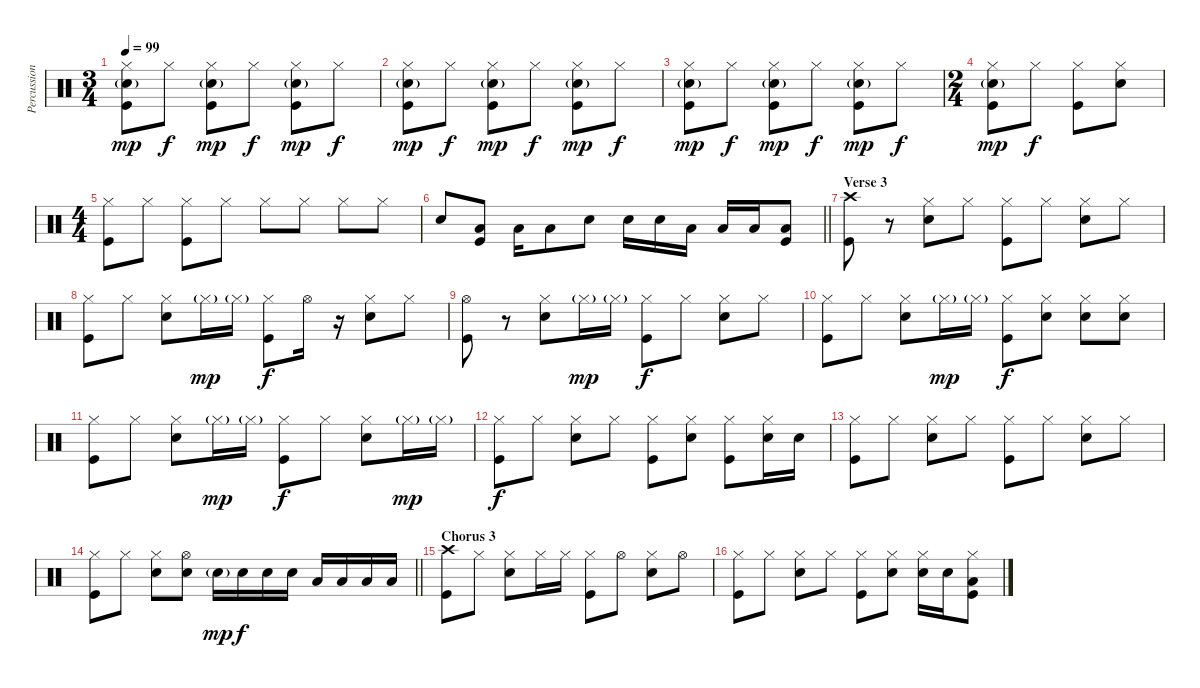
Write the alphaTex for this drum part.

\track ("Percussion" "Percussion") {instrument percussion}
\staff {score}
\articulation defaults
\ts (3 4)
\tempo 99
\clef neutral
\ks c
("Hi-Hat (closed)" "Snare (hit) 2"{g} "Kick (hit)").8{dy mp} "Hi-Hat (closed)".8{dy f} ("Hi-Hat (closed)" "Snare (hit) 2"{g} "Kick (hit)").8{dy mp} "Hi-Hat (closed)".8{dy f} ("Hi-Hat (closed)" "Snare (hit) 2"{g} "Kick (hit)").8{dy mp} "Hi-Hat (closed)".8{dy f} |
("Hi-Hat (closed)" "Snare (hit) 2"{g} "Kick (hit)").8{dy mp} "Hi-Hat (closed)".8{dy f} ("Hi-Hat (closed)" "Snare (hit) 2"{g} "Kick (hit)").8{dy mp} "Hi-Hat (closed)".8{dy f} ("Hi-Hat (closed)" "Snare (hit) 2"{g} "Kick (hit)").8{dy mp} "Hi-Hat (closed)".8{dy f} |
("Hi-Hat (closed)" "Snare (hit) 2"{g} "Kick (hit)").8{dy mp} "Hi-Hat (closed)".8{dy f} ("Hi-Hat (closed)" "Snare (hit) 2"{g} "Kick (hit)").8{dy mp} "Hi-Hat (closed)".8{dy f} ("Hi-Hat (closed)" "Snare (hit) 2"{g} "Kick (hit)").8{dy mp} "Hi-Hat (closed)".8{dy f} |
\ts (2 4)
("Hi-Hat (closed)" "Snare (hit) 2"{g} "Kick (hit)").8{dy mp} "Hi-Hat (closed)".8{dy f} ("Hi-Hat (closed)" "Kick (hit)").8 ("Hi-Hat (closed)" "Snare (hit) 2").8 |
\ts (4 4)
("Hi-Hat (closed)" "Kick (hit)").8 "Hi-Hat (closed)".8 ("Hi-Hat (closed)" "Kick (hit)").8 "Hi-Hat (closed)".8 "Hi-Hat (closed)".8 "Hi-Hat (closed)".8 "Hi-Hat (closed)".8 "Hi-Hat (closed)".8 |
\barLineRight lightlight "Snare (hit) 2".8
("Low Tom (hit)" "Kick (hit)").8 "Low Tom (hit)".16 "Low Tom (hit)".8 "Snare (hit) 2".8 "Snare (hit) 2".16 "Snare (hit) 2".16 "Low Tom (hit)".16 "Low Tom (hit)".16 "Low Tom (hit)".16 ("Low Tom (hit)" "Kick (hit)").8 |
\section ("" "Verse 3")
("Crash high (hit)" "Kick (hit)").8 r.8 ("Hi-Hat (closed)" "Snare (hit) 2").8 "Hi-Hat (closed)".8 ("Hi-Hat (closed)" "Kick (hit)").8 "Hi-Hat (closed)".8 ("Hi-Hat (closed)" "Snare (hit) 2").8 "Hi-Hat (closed)".8 |
("Hi-Hat (closed)" "Kick (hit)").8 "Hi-Hat (closed)".8 ("Hi-Hat (closed)" "Snare (hit) 2").8 "Hi-Hat (closed)"{g}.16{dy mp} "Hi-Hat (closed)"{g}.16 ("Hi-Hat (closed)" "Kick (hit)").8{dy f} "Hi-Hat (open)".16 r.16 ("Hi-Hat (closed)" "Snare (hit) 2").8 "Hi-Hat (closed)".8 |
("Hi-Hat (open)" "Kick (hit)").8 r.8 ("Hi-Hat (closed)" "Snare (hit) 2").8 "Hi-Hat (closed)"{g}.16{dy mp} "Hi-Hat (closed)"{g}.16 ("Hi-Hat (closed)" "Kick (hit)").8{dy f} "Hi-Hat (closed)".8 ("Hi-Hat (closed)" "Snare (hit) 2").8 "Hi-Hat (closed)".8 |
("Hi-Hat (closed)" "Kick (hit)").8 "Hi-Hat (closed)".8 ("Hi-Hat (closed)" "Snare (hit) 2").8 "Hi-Hat (closed)"{g}.16{dy mp} "Hi-Hat (closed)"{g}.16 ("Hi-Hat (closed)" "Kick (hit)").8{dy f} ("Hi-Hat (closed)" "Snare (hit) 2").8 ("Hi-Hat (closed)" "Snare (hit) 2").8 ("Hi-Hat (closed)" "Snare (hit) 2").8 |
("Hi-Hat (closed)" "Kick (hit)").8 "Hi-Hat (closed)".8 ("Hi-Hat (closed)" "Snare (hit) 2").8 "Hi-Hat (closed)"{g}.16{dy mp} "Hi-Hat (closed)"{g}.16 ("Hi-Hat (closed)" "Kick (hit)").8{dy f} "Hi-Hat (closed)".8 ("Hi-Hat (closed)" "Snare (hit) 2").8 "Hi-Hat (closed)"{g}.16{dy mp} "Hi-Hat (closed)"{g}.16 |
("Hi-Hat (closed)" "Kick (hit)").8{dy f} "Hi-Hat (closed)".8 ("Hi-Hat (closed)" "Snare (hit) 2").8 "Hi-Hat (closed)".8 ("Hi-Hat (closed)" "Kick (hit)").8 ("Hi-Hat (closed)" "Snare (hit) 2").8 ("Hi-Hat (closed)" "Kick (hit)").8 ("Hi-Hat (closed)" "Snare (hit) 2").16 "Snare (hit) 2".16 |
("Hi-Hat (closed)" "Kick (hit)").8 "Hi-Hat (closed)".8 ("Hi-Hat (closed)" "Snare (hit) 2").8 "Hi-Hat (closed)".8 ("Hi-Hat (closed)" "Kick (hit)").8 "Hi-Hat (closed)".8 ("Hi-Hat (closed)" "Snare (hit) 2").8 "Hi-Hat (closed)".8 |
\barLineRight lightlight
("Hi-Hat (closed)" "Kick (hit)").8 "Hi-Hat (closed)".8 ("Hi-Hat (closed)" "Snare (hit) 2").8 ("Hi-Hat (open)" "Snare (hit) 2").8 "Snare (hit) 2"{g}.16{dy mp} "Snare (hit) 2".16{dy f} "Snare (hit) 2".16 "Snare (hit) 2".16 "Low Tom (hit)".16 "Low Tom (hit)".16 "Low Tom (hit)".16 "Low Tom (hit)".16 |
\section ("" "Chorus 3")
("Crash high (hit)" "Kick (hit)").8 "Hi-Hat (closed)".8 ("Hi-Hat (closed)" "Snare (hit) 2").8 "Hi-Hat (closed)".16 "Hi-Hat (closed)".16 ("Hi-Hat (closed)" "Kick (hit)").8 "Hi-Hat (open)".8 ("Hi-Hat (closed)" "Snare (hit) 2").8 "Hi-Hat (open)".8 |
("Hi-Hat (closed)" "Kick (hit)").8 "Hi-Hat (closed)".8 ("Hi-Hat (closed)" "Snare (hit) 2").8 "Hi-Hat (closed)".8 ("Hi-Hat (closed)" "Kick (hit)").8 ("Hi-Hat (closed)" "Snare (hit) 2").8 ("Hi-Hat (closed)" "Snare (hit) 2").16 "Snare (hit) 2".16 ("Hi-Hat (closed)" "Low Tom (hit)" "Kick (hit)").8
